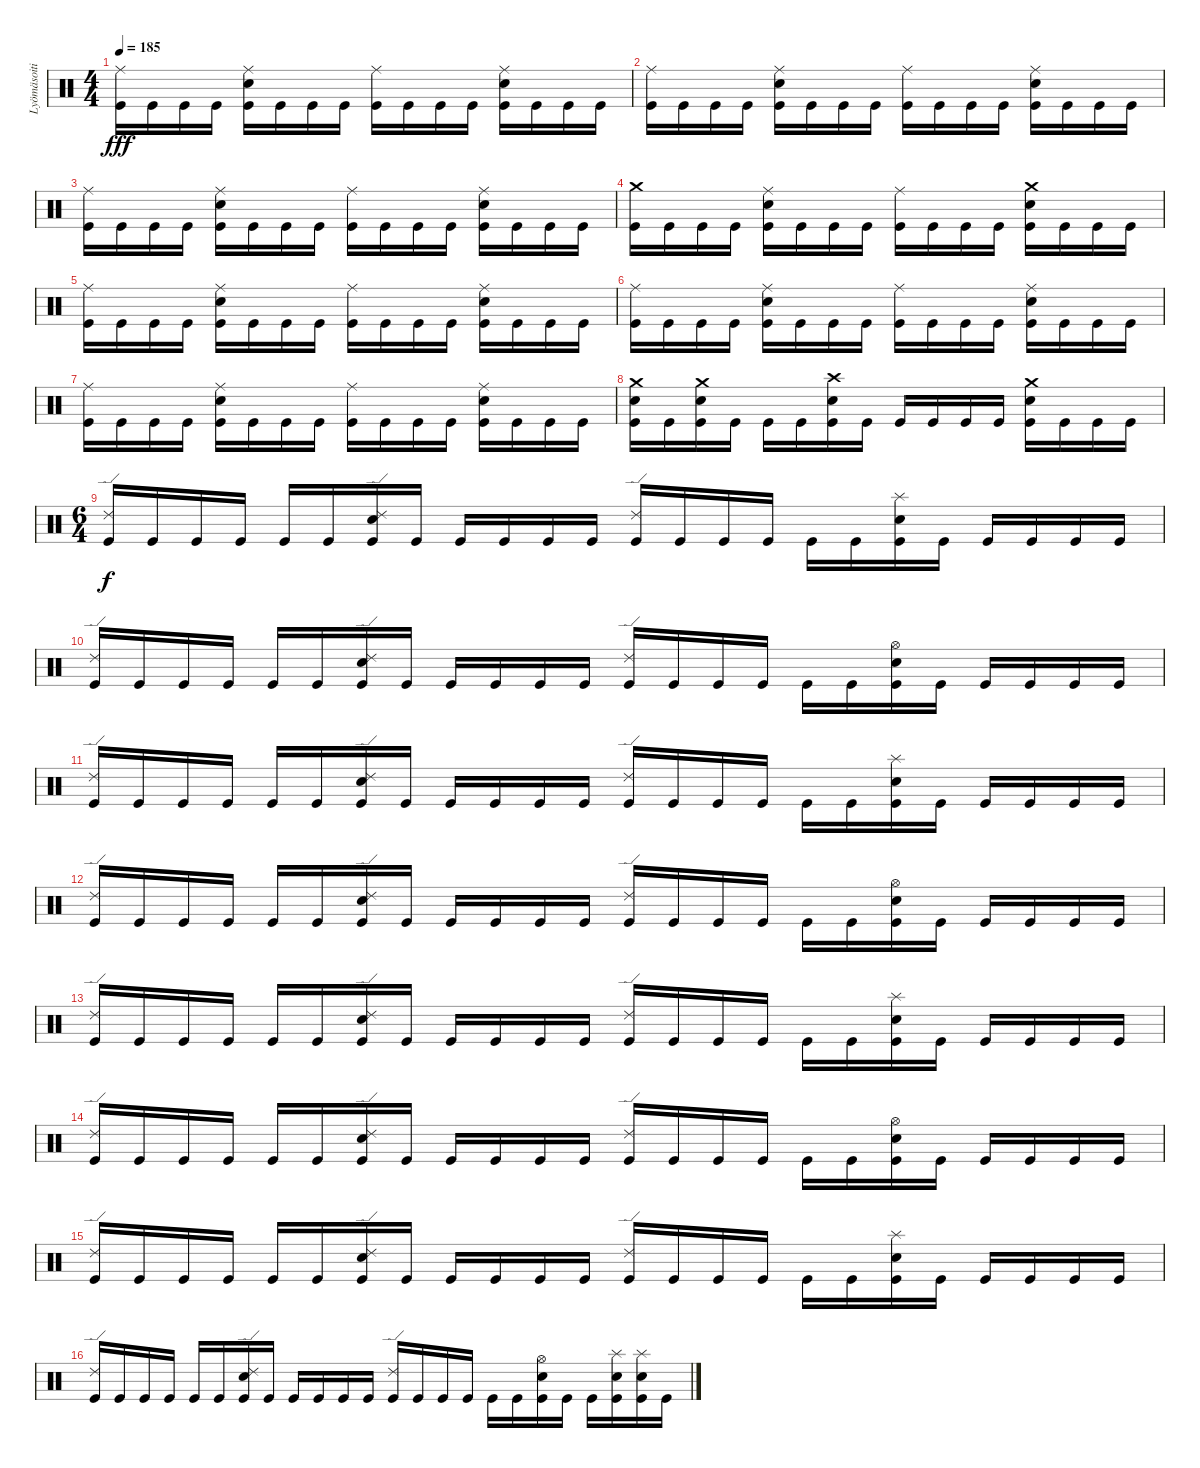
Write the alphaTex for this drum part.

\track ("Lyömäsoitin" "Lyömäsoiti") {instrument percussion}
\staff {score}
\articulation defaults
\ts (4 4)
\tempo 185
\clef neutral
\ks c
("Ride (middle)" "Kick (hit)").16{dy fff} "Kick (hit)".16 "Kick (hit)".16 "Kick (hit)".16 ("Ride (middle)" "Electric Snare (hit)" "Kick (hit)").16 "Kick (hit)".16 "Kick (hit)".16 "Kick (hit)".16 ("Ride (middle)" "Kick (hit)").16 "Kick (hit)".16 "Kick (hit)".16 "Kick (hit)".16 ("Ride (middle)" "Electric Snare (hit)" "Kick (hit)").16 "Kick (hit)".16 "Kick (hit)".16 "Kick (hit)".16 |
("Ride (middle)" "Kick (hit)").16 "Kick (hit)".16 "Kick (hit)".16 "Kick (hit)".16 ("Ride (middle)" "Electric Snare (hit)" "Kick (hit)").16 "Kick (hit)".16 "Kick (hit)".16 "Kick (hit)".16 ("Ride (middle)" "Kick (hit)").16 "Kick (hit)".16 "Kick (hit)".16 "Kick (hit)".16 ("Ride (middle)" "Electric Snare (hit)" "Kick (hit)").16 "Kick (hit)".16 "Kick (hit)".16 "Kick (hit)".16 |
("Ride (middle)" "Kick (hit)").16 "Kick (hit)".16 "Kick (hit)".16 "Kick (hit)".16 ("Ride (middle)" "Electric Snare (hit)" "Kick (hit)").16 "Kick (hit)".16 "Kick (hit)".16 "Kick (hit)".16 ("Ride (middle)" "Kick (hit)").16 "Kick (hit)".16 "Kick (hit)".16 "Kick (hit)".16 ("Ride (middle)" "Electric Snare (hit)" "Kick (hit)").16 "Kick (hit)".16 "Kick (hit)".16 "Kick (hit)".16 |
("Crash medium (hit)" "Kick (hit)").16 "Kick (hit)".16 "Kick (hit)".16 "Kick (hit)".16 ("Ride (middle)" "Electric Snare (hit)" "Kick (hit)").16 "Kick (hit)".16 "Kick (hit)".16 "Kick (hit)".16 ("Ride (middle)" "Kick (hit)").16 "Kick (hit)".16 "Kick (hit)".16 "Kick (hit)".16 ("Crash medium (hit)" "Electric Snare (hit)" "Kick (hit)").16 "Kick (hit)".16 "Kick (hit)".16 "Kick (hit)".16 |
("Ride (middle)" "Kick (hit)").16 "Kick (hit)".16 "Kick (hit)".16 "Kick (hit)".16 ("Ride (middle)" "Electric Snare (hit)" "Kick (hit)").16 "Kick (hit)".16 "Kick (hit)".16 "Kick (hit)".16 ("Ride (middle)" "Kick (hit)").16 "Kick (hit)".16 "Kick (hit)".16 "Kick (hit)".16 ("Ride (middle)" "Electric Snare (hit)" "Kick (hit)").16 "Kick (hit)".16 "Kick (hit)".16 "Kick (hit)".16 |
("Ride (middle)" "Kick (hit)").16 "Kick (hit)".16 "Kick (hit)".16 "Kick (hit)".16 ("Ride (middle)" "Electric Snare (hit)" "Kick (hit)").16 "Kick (hit)".16 "Kick (hit)".16 "Kick (hit)".16 ("Ride (middle)" "Kick (hit)").16 "Kick (hit)".16 "Kick (hit)".16 "Kick (hit)".16 ("Ride (middle)" "Electric Snare (hit)" "Kick (hit)").16 "Kick (hit)".16 "Kick (hit)".16 "Kick (hit)".16 |
("Ride (middle)" "Kick (hit)").16 "Kick (hit)".16 "Kick (hit)".16 "Kick (hit)".16 ("Ride (middle)" "Electric Snare (hit)" "Kick (hit)").16 "Kick (hit)".16 "Kick (hit)".16 "Kick (hit)".16 ("Ride (middle)" "Kick (hit)").16 "Kick (hit)".16 "Kick (hit)".16 "Kick (hit)".16 ("Ride (middle)" "Electric Snare (hit)" "Kick (hit)").16 "Kick (hit)".16 "Kick (hit)".16 "Kick (hit)".16 |
("Crash medium (hit)" "Electric Snare (hit)" "Kick (hit)").16 "Kick (hit)".16 ("Crash medium (hit)" "Electric Snare (hit)" "Kick (hit)").16 "Kick (hit)".16 "Kick (hit)".16 "Kick (hit)".16 ("Crash high (hit)" "Electric Snare (hit)" "Kick (hit)").16 "Kick (hit)".16 "Kick (hit)".16 "Kick (hit)".16 "Kick (hit)".16 "Kick (hit)".16 ("Crash medium (hit)" "Electric Snare (hit)" "Kick (hit)").16 "Kick (hit)".16 "Kick (hit)".16 "Kick (hit)".16 |
\ts (6 4)
("Ride (edge) 2" "Kick (hit)").16{dy f} "Kick (hit)".16 "Kick (hit)".16 "Kick (hit)".16 "Kick (hit)".16 "Kick (hit)".16 ("Electric Snare (hit)" "Ride (edge) 2" "Kick (hit)").16 "Kick (hit)".16 "Kick (hit)".16 "Kick (hit)".16 "Kick (hit)".16 "Kick (hit)".16 ("Ride (edge) 2" "Kick (hit)").16 "Kick (hit)".16 "Kick (hit)".16 "Kick (hit)".16 "Kick (hit)".16 "Kick (hit)".16 ("Electric Snare (hit)" "Splash (hit)" "Kick (hit)").16 "Kick (hit)".16 "Kick (hit)".16 "Kick (hit)".16 "Kick (hit)".16 "Kick (hit)".16 |
("Ride (edge) 2" "Kick (hit)").16 "Kick (hit)".16 "Kick (hit)".16 "Kick (hit)".16 "Kick (hit)".16 "Kick (hit)".16 ("Electric Snare (hit)" "Ride (edge) 2" "Kick (hit)").16 "Kick (hit)".16 "Kick (hit)".16 "Kick (hit)".16 "Kick (hit)".16 "Kick (hit)".16 ("Ride (edge) 2" "Kick (hit)").16 "Kick (hit)".16 "Kick (hit)".16 "Kick (hit)".16 "Kick (hit)".16 "Kick (hit)".16 ("Electric Snare (hit)" "Hi-Hat (open)" "Kick (hit)").16 "Kick (hit)".16 "Kick (hit)".16 "Kick (hit)".16 "Kick (hit)".16 "Kick (hit)".16 |
("Ride (edge) 2" "Kick (hit)").16 "Kick (hit)".16 "Kick (hit)".16 "Kick (hit)".16 "Kick (hit)".16 "Kick (hit)".16 ("Electric Snare (hit)" "Ride (edge) 2" "Kick (hit)").16 "Kick (hit)".16 "Kick (hit)".16 "Kick (hit)".16 "Kick (hit)".16 "Kick (hit)".16 ("Ride (edge) 2" "Kick (hit)").16 "Kick (hit)".16 "Kick (hit)".16 "Kick (hit)".16 "Kick (hit)".16 "Kick (hit)".16 ("Electric Snare (hit)" "Splash (hit)" "Kick (hit)").16 "Kick (hit)".16 "Kick (hit)".16 "Kick (hit)".16 "Kick (hit)".16 "Kick (hit)".16 |
("Ride (edge) 2" "Kick (hit)").16 "Kick (hit)".16 "Kick (hit)".16 "Kick (hit)".16 "Kick (hit)".16 "Kick (hit)".16 ("Electric Snare (hit)" "Ride (edge) 2" "Kick (hit)").16 "Kick (hit)".16 "Kick (hit)".16 "Kick (hit)".16 "Kick (hit)".16 "Kick (hit)".16 ("Ride (edge) 2" "Kick (hit)").16 "Kick (hit)".16 "Kick (hit)".16 "Kick (hit)".16 "Kick (hit)".16 "Kick (hit)".16 ("Electric Snare (hit)" "Hi-Hat (open)" "Kick (hit)").16 "Kick (hit)".16 "Kick (hit)".16 "Kick (hit)".16 "Kick (hit)".16 "Kick (hit)".16 |
("Ride (edge) 2" "Kick (hit)").16 "Kick (hit)".16 "Kick (hit)".16 "Kick (hit)".16 "Kick (hit)".16 "Kick (hit)".16 ("Electric Snare (hit)" "Ride (edge) 2" "Kick (hit)").16 "Kick (hit)".16 "Kick (hit)".16 "Kick (hit)".16 "Kick (hit)".16 "Kick (hit)".16 ("Ride (edge) 2" "Kick (hit)").16 "Kick (hit)".16 "Kick (hit)".16 "Kick (hit)".16 "Kick (hit)".16 "Kick (hit)".16 ("Electric Snare (hit)" "Splash (hit)" "Kick (hit)").16 "Kick (hit)".16 "Kick (hit)".16 "Kick (hit)".16 "Kick (hit)".16 "Kick (hit)".16 |
("Ride (edge) 2" "Kick (hit)").16 "Kick (hit)".16 "Kick (hit)".16 "Kick (hit)".16 "Kick (hit)".16 "Kick (hit)".16 ("Electric Snare (hit)" "Ride (edge) 2" "Kick (hit)").16 "Kick (hit)".16 "Kick (hit)".16 "Kick (hit)".16 "Kick (hit)".16 "Kick (hit)".16 ("Ride (edge) 2" "Kick (hit)").16 "Kick (hit)".16 "Kick (hit)".16 "Kick (hit)".16 "Kick (hit)".16 "Kick (hit)".16 ("Electric Snare (hit)" "Hi-Hat (open)" "Kick (hit)").16 "Kick (hit)".16 "Kick (hit)".16 "Kick (hit)".16 "Kick (hit)".16 "Kick (hit)".16 |
("Ride (edge) 2" "Kick (hit)").16 "Kick (hit)".16 "Kick (hit)".16 "Kick (hit)".16 "Kick (hit)".16 "Kick (hit)".16 ("Electric Snare (hit)" "Ride (edge) 2" "Kick (hit)").16 "Kick (hit)".16 "Kick (hit)".16 "Kick (hit)".16 "Kick (hit)".16 "Kick (hit)".16 ("Ride (edge) 2" "Kick (hit)").16 "Kick (hit)".16 "Kick (hit)".16 "Kick (hit)".16 "Kick (hit)".16 "Kick (hit)".16 ("Electric Snare (hit)" "Splash (hit)" "Kick (hit)").16 "Kick (hit)".16 "Kick (hit)".16 "Kick (hit)".16 "Kick (hit)".16 "Kick (hit)".16 |
("Ride (edge) 2" "Kick (hit)").16 "Kick (hit)".16 "Kick (hit)".16 "Kick (hit)".16 "Kick (hit)".16 "Kick (hit)".16 ("Electric Snare (hit)" "Ride (edge) 2" "Kick (hit)").16 "Kick (hit)".16 "Kick (hit)".16 "Kick (hit)".16 "Kick (hit)".16 "Kick (hit)".16 ("Ride (edge) 2" "Kick (hit)").16 "Kick (hit)".16 "Kick (hit)".16 "Kick (hit)".16 "Kick (hit)".16 "Kick (hit)".16 ("Electric Snare (hit)" "Hi-Hat (open)" "Kick (hit)").16 "Kick (hit)".16 "Kick (hit)".16 ("Electric Snare (hit)" "Splash (hit)" "Kick (hit)").16 ("Electric Snare (hit)" "Splash (hit)" "Kick (hit)").16 "Kick (hit)".16
